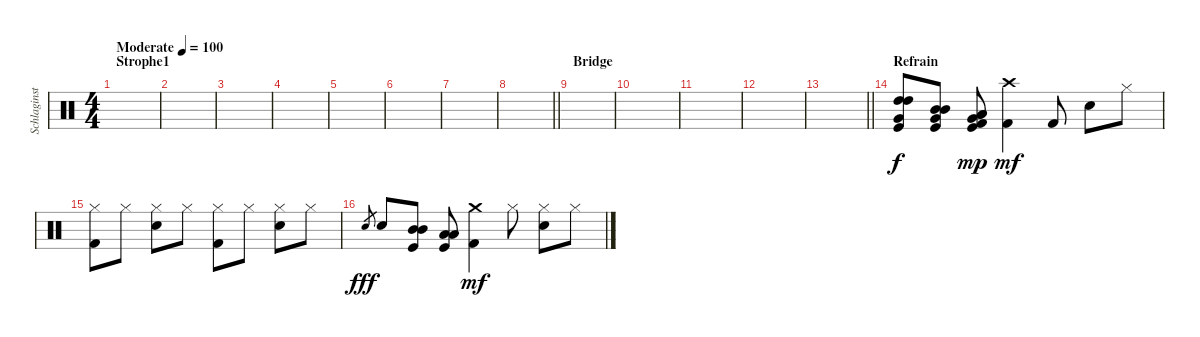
\track ("Schlaginstrumente - Auswahl" "Schlaginst") {instrument percussion}
\staff {score}
\articulation defaults
\ts (4 4)
\section ("" "Strophe1")
\tempo (100 "Moderate")
\clef neutral
\ks c
|
|
|
|
|
|
|
\barLineRight lightlight
|
\section ("" "Bridge")
|
|
|
|
\barLineRight lightlight
|
\section ("" "Refrain")
("Very Low Tom (hit)" "High Tom (hit)" "High Tom (hit)" "Kick (hit)").8 ("Very Low Tom (hit)" "Mid Tom (hit)" "Mid Tom (hit)" "Kick (hit)").8 ("Very Low Tom (hit)" "Low Tom (hit)" "Low Tom (hit)" "Kick (hit)" "Kick (hit) 2").8{dy mp} ("Crash high (hit)" "Kick (hit) 2").4{dy mf} "Kick (hit) 2".8 "Snare (hit) 2".8 "Hi-Hat (closed)".8 |
("Hi-Hat (closed)" "Kick (hit) 2").8 "Hi-Hat (closed)".8 ("Hi-Hat (closed)" "Snare (hit) 2").8 "Hi-Hat (closed)".8 ("Hi-Hat (closed)" "Kick (hit) 2").8 "Hi-Hat (closed)".8 ("Hi-Hat (closed)" "Snare (hit) 2").8 "Hi-Hat (closed)".8 |
"Snare (hit) 2".8{gr dy fff} "Snare (hit) 2".8 ("Mid Tom (hit)" "Mid Tom (hit)" "Kick (hit)").8 ("Low Tom (hit)" "Low Tom (hit)" "Kick (hit)").8 ("Crash medium (hit)" "Kick (hit) 2").4{dy mf} "Hi-Hat (closed)".8 ("Hi-Hat (closed)" "Snare (hit) 2").8 "Hi-Hat (closed)".8
